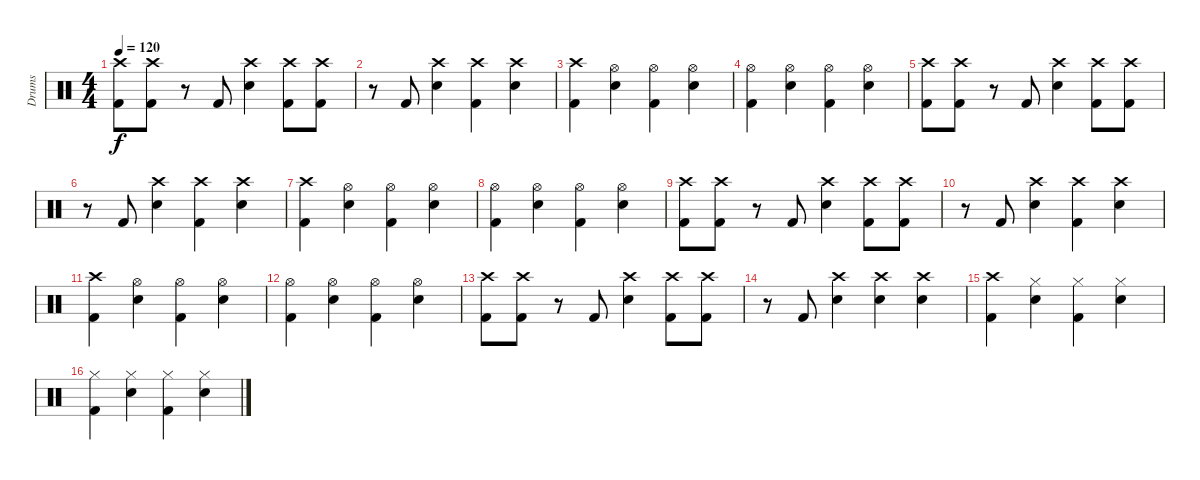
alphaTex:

\track ("Drums" "Drums") {instrument percussion}
\staff {score}
\articulation defaults
\ts (4 4)
\tempo 120
\clef neutral
\ks c
("Crash high (hit)" "Kick (hit) 2").8{dy f} ("Crash high (hit)" "Kick (hit) 2").8 r.8 "Kick (hit) 2".8 ("Crash high (hit)" "Electric Snare (hit)").4 ("Crash high (hit)" "Kick (hit) 2").8 ("Crash high (hit)" "Kick (hit) 2").8 |
r.8 "Kick (hit) 2".8 ("Crash high (hit)" "Electric Snare (hit)").4 ("Crash high (hit)" "Kick (hit) 2").4 ("Crash high (hit)" "Electric Snare (hit)").4 |
("Crash high (hit)" "Kick (hit) 2").4 ("Hi-Hat (open)" "Electric Snare (hit)").4 ("Hi-Hat (open)" "Kick (hit) 2").4 ("Hi-Hat (open)" "Electric Snare (hit)").4 |
("Hi-Hat (open)" "Kick (hit) 2").4 ("Hi-Hat (open)" "Electric Snare (hit)").4 ("Hi-Hat (open)" "Kick (hit) 2").4 ("Hi-Hat (open)" "Electric Snare (hit)").4 |
("Crash high (hit)" "Kick (hit) 2").8 ("Crash high (hit)" "Kick (hit) 2").8 r.8 "Kick (hit) 2".8 ("Crash high (hit)" "Electric Snare (hit)").4 ("Crash high (hit)" "Kick (hit) 2").8 ("Crash high (hit)" "Kick (hit) 2").8 |
r.8 "Kick (hit) 2".8 ("Crash high (hit)" "Electric Snare (hit)").4 ("Crash high (hit)" "Kick (hit) 2").4 ("Crash high (hit)" "Electric Snare (hit)").4 |
("Crash high (hit)" "Kick (hit) 2").4 ("Hi-Hat (open)" "Electric Snare (hit)").4 ("Hi-Hat (open)" "Kick (hit) 2").4 ("Hi-Hat (open)" "Electric Snare (hit)").4 |
("Hi-Hat (open)" "Kick (hit) 2").4 ("Hi-Hat (open)" "Electric Snare (hit)").4 ("Hi-Hat (open)" "Kick (hit) 2").4 ("Hi-Hat (open)" "Electric Snare (hit)").4 |
("Crash high (hit)" "Kick (hit) 2").8 ("Crash high (hit)" "Kick (hit) 2").8 r.8 "Kick (hit) 2".8 ("Crash high (hit)" "Electric Snare (hit)").4 ("Crash high (hit)" "Kick (hit) 2").8 ("Crash high (hit)" "Kick (hit) 2").8 |
r.8 "Kick (hit) 2".8 ("Crash high (hit)" "Electric Snare (hit)").4 ("Crash high (hit)" "Kick (hit) 2").4 ("Crash high (hit)" "Electric Snare (hit)").4 |
("Crash high (hit)" "Kick (hit) 2").4 ("Hi-Hat (open)" "Electric Snare (hit)").4 ("Hi-Hat (open)" "Kick (hit) 2").4 ("Hi-Hat (open)" "Electric Snare (hit)").4 |
("Hi-Hat (open)" "Kick (hit) 2").4 ("Hi-Hat (open)" "Electric Snare (hit)").4 ("Hi-Hat (open)" "Kick (hit) 2").4 ("Hi-Hat (open)" "Electric Snare (hit)").4 |
("Crash high (hit)" "Kick (hit) 2").8 ("Crash high (hit)" "Kick (hit) 2").8 r.8 "Kick (hit) 2".8 ("Crash high (hit)" "Electric Snare (hit)").4 ("Crash high (hit)" "Kick (hit) 2").8 ("Crash high (hit)" "Kick (hit) 2").8 |
r.8 "Kick (hit) 2".8 ("Crash high (hit)" "Electric Snare (hit)").4 ("Crash high (hit)" "Electric Snare (hit)").4 ("Crash high (hit)" "Electric Snare (hit)").4 |
("Crash high (hit)" "Kick (hit) 2").4 ("Hi-Hat (closed)" "Electric Snare (hit)").4 ("Hi-Hat (closed)" "Kick (hit) 2").4 ("Hi-Hat (closed)" "Electric Snare (hit)").4 |
("Hi-Hat (closed)" "Kick (hit) 2").4 ("Hi-Hat (closed)" "Electric Snare (hit)").4 ("Hi-Hat (closed)" "Kick (hit) 2").4 ("Hi-Hat (closed)" "Electric Snare (hit)").4
